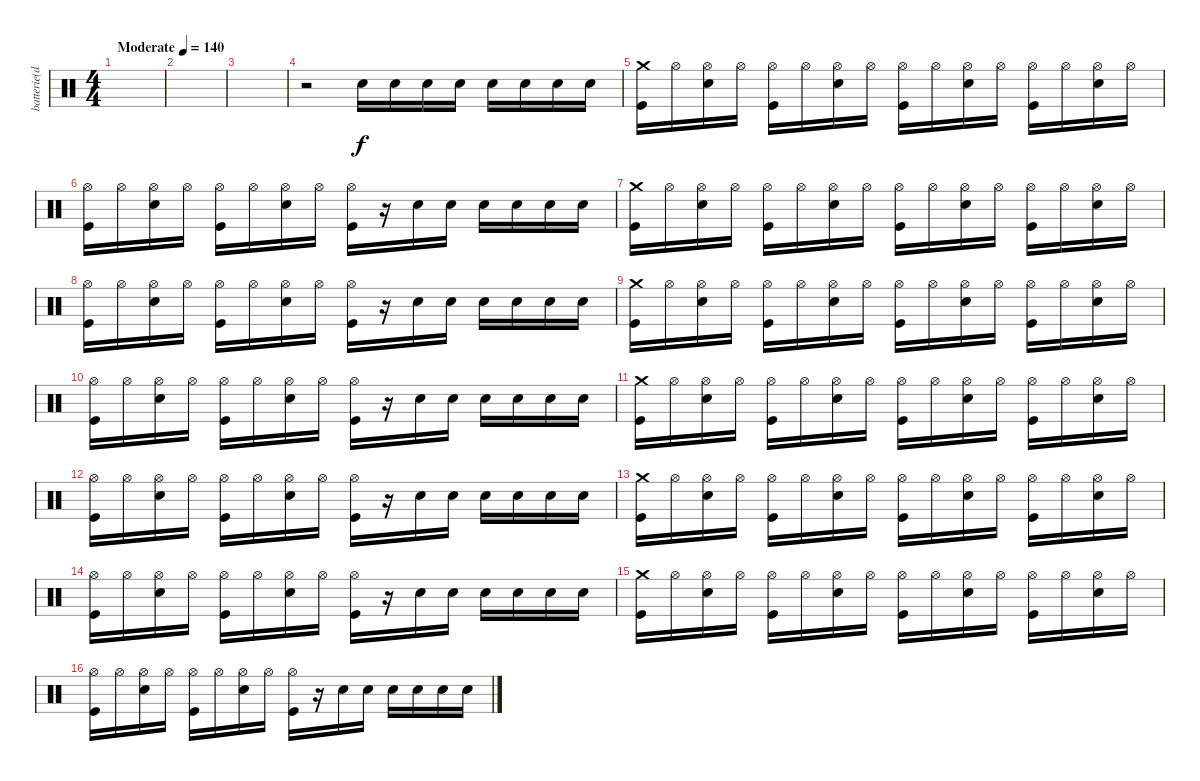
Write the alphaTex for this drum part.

\track ("batterie(dru stix)" "batterie(d") {instrument percussion}
\staff {score}
\articulation defaults
\ts (4 4)
\tempo (140 "Moderate")
\clef neutral
\ks c
|
|
|
r.2 "Snare (hit) 2".16 "Snare (hit) 2".16 "Snare (hit) 2".16 "Snare (hit) 2".16 "Snare (hit) 2".16 "Snare (hit) 2".16 "Snare (hit) 2".16 "Snare (hit) 2".16 |
("Crash medium (hit)" "Kick (hit)").16 "Hi-Hat (open)".16 ("Hi-Hat (open)" "Snare (hit) 2").16 "Hi-Hat (open)".16 ("Hi-Hat (open)" "Kick (hit)").16 "Hi-Hat (open)".16 ("Hi-Hat (open)" "Snare (hit) 2").16 "Hi-Hat (open)".16 ("Hi-Hat (open)" "Kick (hit)").16 "Hi-Hat (open)".16 ("Hi-Hat (open)" "Snare (hit) 2").16 "Hi-Hat (open)".16 ("Hi-Hat (open)" "Kick (hit)").16 "Hi-Hat (open)".16 ("Hi-Hat (open)" "Snare (hit) 2").16 "Hi-Hat (open)".16 |
("Hi-Hat (open)" "Kick (hit)").16 "Hi-Hat (open)".16 ("Hi-Hat (open)" "Snare (hit) 2").16 "Hi-Hat (open)".16 ("Hi-Hat (open)" "Kick (hit)").16 "Hi-Hat (open)".16 ("Hi-Hat (open)" "Snare (hit) 2").16 "Hi-Hat (open)".16 ("Hi-Hat (open)" "Kick (hit)").16 r.16 "Snare (hit) 2".16 "Snare (hit) 2".16 "Snare (hit) 2".16 "Snare (hit) 2".16 "Snare (hit) 2".16 "Snare (hit) 2".16 |
("Crash medium (hit)" "Kick (hit)").16 "Hi-Hat (open)".16 ("Hi-Hat (open)" "Snare (hit) 2").16 "Hi-Hat (open)".16 ("Hi-Hat (open)" "Kick (hit)").16 "Hi-Hat (open)".16 ("Hi-Hat (open)" "Snare (hit) 2").16 "Hi-Hat (open)".16 ("Hi-Hat (open)" "Kick (hit)").16 "Hi-Hat (open)".16 ("Hi-Hat (open)" "Snare (hit) 2").16 "Hi-Hat (open)".16 ("Hi-Hat (open)" "Kick (hit)").16 "Hi-Hat (open)".16 ("Hi-Hat (open)" "Snare (hit) 2").16 "Hi-Hat (open)".16 |
("Hi-Hat (open)" "Kick (hit)").16 "Hi-Hat (open)".16 ("Hi-Hat (open)" "Snare (hit) 2").16 "Hi-Hat (open)".16 ("Hi-Hat (open)" "Kick (hit)").16 "Hi-Hat (open)".16 ("Hi-Hat (open)" "Snare (hit) 2").16 "Hi-Hat (open)".16 ("Hi-Hat (open)" "Kick (hit)").16 r.16 "Snare (hit) 2".16 "Snare (hit) 2".16 "Snare (hit) 2".16 "Snare (hit) 2".16 "Snare (hit) 2".16 "Snare (hit) 2".16 |
("Crash medium (hit)" "Kick (hit)").16 "Hi-Hat (open)".16 ("Hi-Hat (open)" "Snare (hit) 2").16 "Hi-Hat (open)".16 ("Hi-Hat (open)" "Kick (hit)").16 "Hi-Hat (open)".16 ("Hi-Hat (open)" "Snare (hit) 2").16 "Hi-Hat (open)".16 ("Hi-Hat (open)" "Kick (hit)").16 "Hi-Hat (open)".16 ("Hi-Hat (open)" "Snare (hit) 2").16 "Hi-Hat (open)".16 ("Hi-Hat (open)" "Kick (hit)").16 "Hi-Hat (open)".16 ("Hi-Hat (open)" "Snare (hit) 2").16 "Hi-Hat (open)".16 |
("Hi-Hat (open)" "Kick (hit)").16 "Hi-Hat (open)".16 ("Hi-Hat (open)" "Snare (hit) 2").16 "Hi-Hat (open)".16 ("Hi-Hat (open)" "Kick (hit)").16 "Hi-Hat (open)".16 ("Hi-Hat (open)" "Snare (hit) 2").16 "Hi-Hat (open)".16 ("Hi-Hat (open)" "Kick (hit)").16 r.16 "Snare (hit) 2".16 "Snare (hit) 2".16 "Snare (hit) 2".16 "Snare (hit) 2".16 "Snare (hit) 2".16 "Snare (hit) 2".16 |
("Crash medium (hit)" "Kick (hit)").16 "Hi-Hat (open)".16 ("Hi-Hat (open)" "Snare (hit) 2").16 "Hi-Hat (open)".16 ("Hi-Hat (open)" "Kick (hit)").16 "Hi-Hat (open)".16 ("Hi-Hat (open)" "Snare (hit) 2").16 "Hi-Hat (open)".16 ("Hi-Hat (open)" "Kick (hit)").16 "Hi-Hat (open)".16 ("Hi-Hat (open)" "Snare (hit) 2").16 "Hi-Hat (open)".16 ("Hi-Hat (open)" "Kick (hit)").16 "Hi-Hat (open)".16 ("Hi-Hat (open)" "Snare (hit) 2").16 "Hi-Hat (open)".16 |
("Hi-Hat (open)" "Kick (hit)").16 "Hi-Hat (open)".16 ("Hi-Hat (open)" "Snare (hit) 2").16 "Hi-Hat (open)".16 ("Hi-Hat (open)" "Kick (hit)").16 "Hi-Hat (open)".16 ("Hi-Hat (open)" "Snare (hit) 2").16 "Hi-Hat (open)".16 ("Hi-Hat (open)" "Kick (hit)").16 r.16 "Snare (hit) 2".16 "Snare (hit) 2".16 "Snare (hit) 2".16 "Snare (hit) 2".16 "Snare (hit) 2".16 "Snare (hit) 2".16 |
("Crash medium (hit)" "Kick (hit)").16 "Hi-Hat (open)".16 ("Hi-Hat (open)" "Snare (hit) 2").16 "Hi-Hat (open)".16 ("Hi-Hat (open)" "Kick (hit)").16 "Hi-Hat (open)".16 ("Hi-Hat (open)" "Snare (hit) 2").16 "Hi-Hat (open)".16 ("Hi-Hat (open)" "Kick (hit)").16 "Hi-Hat (open)".16 ("Hi-Hat (open)" "Snare (hit) 2").16 "Hi-Hat (open)".16 ("Hi-Hat (open)" "Kick (hit)").16 "Hi-Hat (open)".16 ("Hi-Hat (open)" "Snare (hit) 2").16 "Hi-Hat (open)".16 |
("Hi-Hat (open)" "Kick (hit)").16 "Hi-Hat (open)".16 ("Hi-Hat (open)" "Snare (hit) 2").16 "Hi-Hat (open)".16 ("Hi-Hat (open)" "Kick (hit)").16 "Hi-Hat (open)".16 ("Hi-Hat (open)" "Snare (hit) 2").16 "Hi-Hat (open)".16 ("Hi-Hat (open)" "Kick (hit)").16 r.16 "Snare (hit) 2".16 "Snare (hit) 2".16 "Snare (hit) 2".16 "Snare (hit) 2".16 "Snare (hit) 2".16 "Snare (hit) 2".16 |
("Crash medium (hit)" "Kick (hit)").16 "Hi-Hat (open)".16 ("Hi-Hat (open)" "Snare (hit) 2").16 "Hi-Hat (open)".16 ("Hi-Hat (open)" "Kick (hit)").16 "Hi-Hat (open)".16 ("Hi-Hat (open)" "Snare (hit) 2").16 "Hi-Hat (open)".16 ("Hi-Hat (open)" "Kick (hit)").16 "Hi-Hat (open)".16 ("Hi-Hat (open)" "Snare (hit) 2").16 "Hi-Hat (open)".16 ("Hi-Hat (open)" "Kick (hit)").16 "Hi-Hat (open)".16 ("Hi-Hat (open)" "Snare (hit) 2").16 "Hi-Hat (open)".16 |
("Hi-Hat (open)" "Kick (hit)").16 "Hi-Hat (open)".16 ("Hi-Hat (open)" "Snare (hit) 2").16 "Hi-Hat (open)".16 ("Hi-Hat (open)" "Kick (hit)").16 "Hi-Hat (open)".16 ("Hi-Hat (open)" "Snare (hit) 2").16 "Hi-Hat (open)".16 ("Hi-Hat (open)" "Kick (hit)").16 r.16 "Snare (hit) 2".16 "Snare (hit) 2".16 "Snare (hit) 2".16 "Snare (hit) 2".16 "Snare (hit) 2".16 "Snare (hit) 2".16
